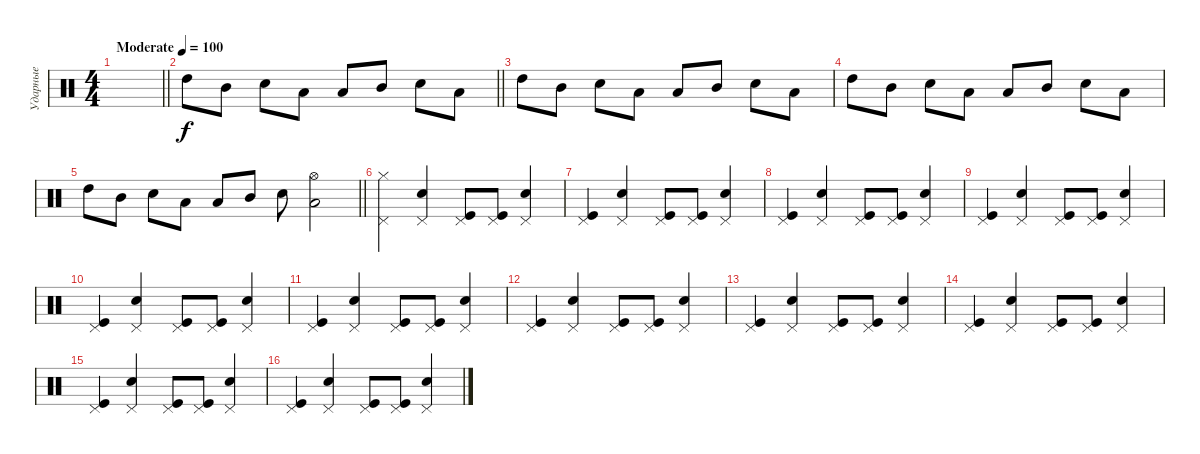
\track ("Ударные" "Ударные") {instrument percussion}
\staff {score}
\articulation defaults
\ts (4 4)
\tempo (100 "Moderate")
\clef neutral
\barLineRight lightlight
\ks c
|
\barLineRight lightlight "High Tom (hit)".8 "Mid Tom (hit)".8 "Snare (hit) 2".8 "Low Floor Tom (hit)".8 "Low Tom (hit)".8 "Mid Tom (hit)".8 "Snare (hit) 2".8 "Low Floor Tom (hit)".8
|
"High Tom (hit)".8 "Mid Tom (hit)".8 "Snare (hit) 2".8 "Low Floor Tom (hit)".8 "Low Tom (hit)".8 "Mid Tom (hit)".8 "Snare (hit) 2".8 "Low Floor Tom (hit)".8 |
"High Tom (hit)".8 "Mid Tom (hit)".8 "Snare (hit) 2".8 "Low Floor Tom (hit)".8 "Low Tom (hit)".8 "Mid Tom (hit)".8 "Snare (hit) 2".8 "Low Floor Tom (hit)".8 |
\barLineRight lightlight "High Tom (hit)".8 "Mid Tom (hit)".8 "Snare (hit) 2".8 "Low Floor Tom (hit)".8 "Low Tom (hit)".8 "Mid Tom (hit)".8 "Snare (hit) 2".8
("Low Floor Tom (hit)" "Hi-Hat (open)").2 |
("Pedal Hi-Hat (hit)" "Hi-Hat (closed)").4 ("Pedal Hi-Hat (hit)" "Snare (hit) 2").4 ("Pedal Hi-Hat (hit)" "Kick (hit)").8 ("Pedal Hi-Hat (hit)" "Kick (hit)").8 ("Pedal Hi-Hat (hit)" "Snare (hit) 2").4 |
("Pedal Hi-Hat (hit)" "Kick (hit)").4 ("Pedal Hi-Hat (hit)" "Snare (hit) 2").4 ("Pedal Hi-Hat (hit)" "Kick (hit)").8 ("Pedal Hi-Hat (hit)" "Kick (hit)").8 ("Pedal Hi-Hat (hit)" "Snare (hit) 2").4 |
("Pedal Hi-Hat (hit)" "Kick (hit)").4 ("Pedal Hi-Hat (hit)" "Snare (hit) 2").4 ("Pedal Hi-Hat (hit)" "Kick (hit)").8 ("Pedal Hi-Hat (hit)" "Kick (hit)").8 ("Pedal Hi-Hat (hit)" "Snare (hit) 2").4 |
("Pedal Hi-Hat (hit)" "Kick (hit)").4 ("Pedal Hi-Hat (hit)" "Snare (hit) 2").4 ("Pedal Hi-Hat (hit)" "Kick (hit)").8 ("Pedal Hi-Hat (hit)" "Kick (hit)").8 ("Pedal Hi-Hat (hit)" "Snare (hit) 2").4 |
("Pedal Hi-Hat (hit)" "Kick (hit)").4 ("Pedal Hi-Hat (hit)" "Snare (hit) 2").4 ("Pedal Hi-Hat (hit)" "Kick (hit)").8 ("Pedal Hi-Hat (hit)" "Kick (hit)").8 ("Pedal Hi-Hat (hit)" "Snare (hit) 2").4 |
("Pedal Hi-Hat (hit)" "Kick (hit)").4 ("Pedal Hi-Hat (hit)" "Snare (hit) 2").4 ("Pedal Hi-Hat (hit)" "Kick (hit)").8 ("Pedal Hi-Hat (hit)" "Kick (hit)").8 ("Pedal Hi-Hat (hit)" "Snare (hit) 2").4 |
("Pedal Hi-Hat (hit)" "Kick (hit)").4 ("Pedal Hi-Hat (hit)" "Snare (hit) 2").4 ("Pedal Hi-Hat (hit)" "Kick (hit)").8 ("Pedal Hi-Hat (hit)" "Kick (hit)").8 ("Pedal Hi-Hat (hit)" "Snare (hit) 2").4 |
("Pedal Hi-Hat (hit)" "Kick (hit)").4 ("Pedal Hi-Hat (hit)" "Snare (hit) 2").4 ("Pedal Hi-Hat (hit)" "Kick (hit)").8 ("Pedal Hi-Hat (hit)" "Kick (hit)").8 ("Pedal Hi-Hat (hit)" "Snare (hit) 2").4 |
("Pedal Hi-Hat (hit)" "Kick (hit)").4 ("Pedal Hi-Hat (hit)" "Snare (hit) 2").4 ("Pedal Hi-Hat (hit)" "Kick (hit)").8 ("Pedal Hi-Hat (hit)" "Kick (hit)").8 ("Pedal Hi-Hat (hit)" "Snare (hit) 2").4 |
("Pedal Hi-Hat (hit)" "Kick (hit)").4 ("Pedal Hi-Hat (hit)" "Snare (hit) 2").4 ("Pedal Hi-Hat (hit)" "Kick (hit)").8 ("Pedal Hi-Hat (hit)" "Kick (hit)").8 ("Pedal Hi-Hat (hit)" "Snare (hit) 2").4 |
("Pedal Hi-Hat (hit)" "Kick (hit)").4 ("Pedal Hi-Hat (hit)" "Snare (hit) 2").4 ("Pedal Hi-Hat (hit)" "Kick (hit)").8 ("Pedal Hi-Hat (hit)" "Kick (hit)").8 ("Pedal Hi-Hat (hit)" "Snare (hit) 2").4
